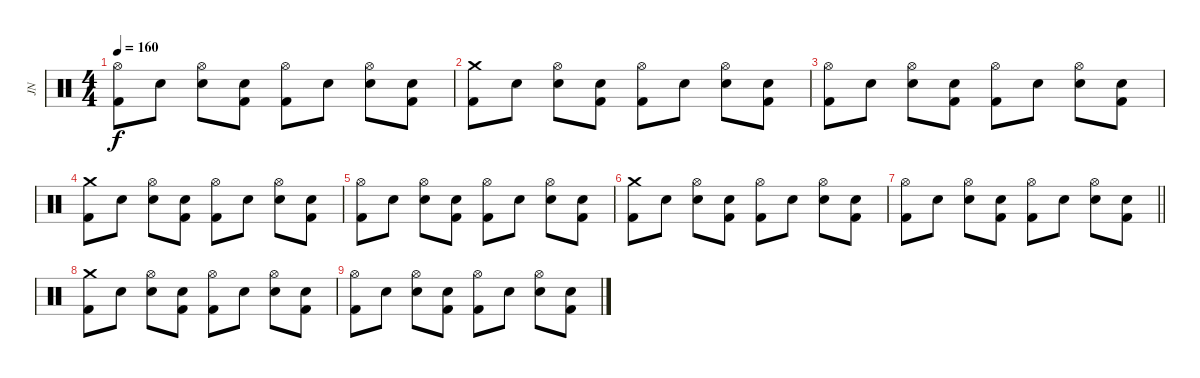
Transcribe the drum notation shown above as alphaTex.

\track ("JN" "JN") {instrument percussion}
\staff {score}
\articulation defaults
\ts (4 4)
\tempo 160
\clef neutral
\ks c
("Hi-Hat (open)" "Kick (hit) 2").8{dy f} "Snare (hit)".8 ("Hi-Hat (open)" "Electric Snare (hit)").8 ("Snare (hit)" "Kick (hit) 2").8 ("Hi-Hat (open)" "Kick (hit) 2").8 "Snare (hit)".8 ("Hi-Hat (open)" "Electric Snare (hit)").8 ("Snare (hit)" "Kick (hit) 2").8 |
("Crash medium (hit)" "Kick (hit) 2").8 "Snare (hit)".8 ("Hi-Hat (open)" "Electric Snare (hit)").8 ("Snare (hit)" "Kick (hit) 2").8 ("Hi-Hat (open)" "Kick (hit) 2").8 "Snare (hit)".8 ("Hi-Hat (open)" "Electric Snare (hit)").8 ("Snare (hit)" "Kick (hit) 2").8 |
("Hi-Hat (open)" "Kick (hit) 2").8 "Snare (hit)".8 ("Hi-Hat (open)" "Electric Snare (hit)").8 ("Snare (hit)" "Kick (hit) 2").8 ("Hi-Hat (open)" "Kick (hit) 2").8 "Snare (hit)".8 ("Hi-Hat (open)" "Electric Snare (hit)").8 ("Snare (hit)" "Kick (hit) 2").8 |
("Crash medium (hit)" "Kick (hit) 2").8 "Snare (hit)".8 ("Hi-Hat (open)" "Electric Snare (hit)").8 ("Snare (hit)" "Kick (hit) 2").8 ("Hi-Hat (open)" "Kick (hit) 2").8 "Snare (hit)".8 ("Hi-Hat (open)" "Electric Snare (hit)").8 ("Snare (hit)" "Kick (hit) 2").8 |
("Hi-Hat (open)" "Kick (hit) 2").8 "Snare (hit)".8 ("Hi-Hat (open)" "Electric Snare (hit)").8 ("Snare (hit)" "Kick (hit) 2").8 ("Hi-Hat (open)" "Kick (hit) 2").8 "Snare (hit)".8 ("Hi-Hat (open)" "Electric Snare (hit)").8 ("Snare (hit)" "Kick (hit) 2").8 |
("Crash medium (hit)" "Kick (hit) 2").8 "Snare (hit)".8 ("Hi-Hat (open)" "Electric Snare (hit)").8 ("Snare (hit)" "Kick (hit) 2").8 ("Hi-Hat (open)" "Kick (hit) 2").8 "Snare (hit)".8 ("Hi-Hat (open)" "Electric Snare (hit)").8 ("Snare (hit)" "Kick (hit) 2").8 |
\barLineRight lightlight
("Hi-Hat (open)" "Kick (hit) 2").8 "Snare (hit)".8 ("Hi-Hat (open)" "Electric Snare (hit)").8 ("Snare (hit)" "Kick (hit) 2").8 ("Hi-Hat (open)" "Kick (hit) 2").8 "Snare (hit)".8 ("Hi-Hat (open)" "Electric Snare (hit)").8 ("Snare (hit)" "Kick (hit) 2").8 |
("Crash medium (hit)" "Kick (hit) 2").8 "Snare (hit)".8 ("Hi-Hat (open)" "Electric Snare (hit)").8 ("Snare (hit)" "Kick (hit) 2").8 ("Hi-Hat (open)" "Kick (hit) 2").8 "Snare (hit)".8 ("Hi-Hat (open)" "Electric Snare (hit)").8 ("Snare (hit)" "Kick (hit) 2").8 |
("Hi-Hat (open)" "Kick (hit) 2").8 "Snare (hit)".8 ("Hi-Hat (open)" "Electric Snare (hit)").8 ("Snare (hit)" "Kick (hit) 2").8 ("Hi-Hat (open)" "Kick (hit) 2").8 "Snare (hit)".8 ("Hi-Hat (open)" "Electric Snare (hit)").8 ("Snare (hit)" "Kick (hit) 2").8
